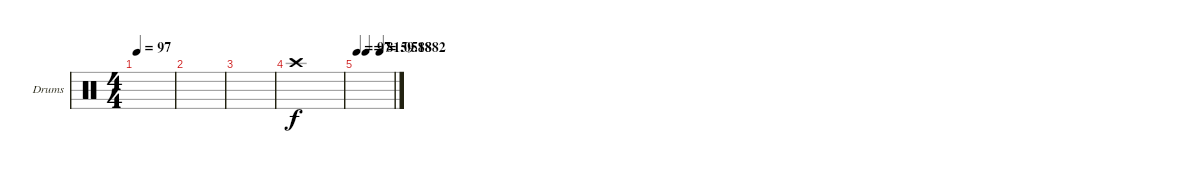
\bracketExtendMode groupsimilarinstruments
\firstSystemTrackNameOrientation horizontal
\otherSystemsTrackNameOrientation horizontal
\track ("OH" "Drums") {instrument percussion}
\staff {score}
\articulation defaults
\ts (4 4)
\tempo 97
\clef neutral
\ks c
|
|
|
"Crash high (hit)".1 |
\tempo 97
\tempo (81.0588 0.25)
\tempo (59.1882 0.6375)
